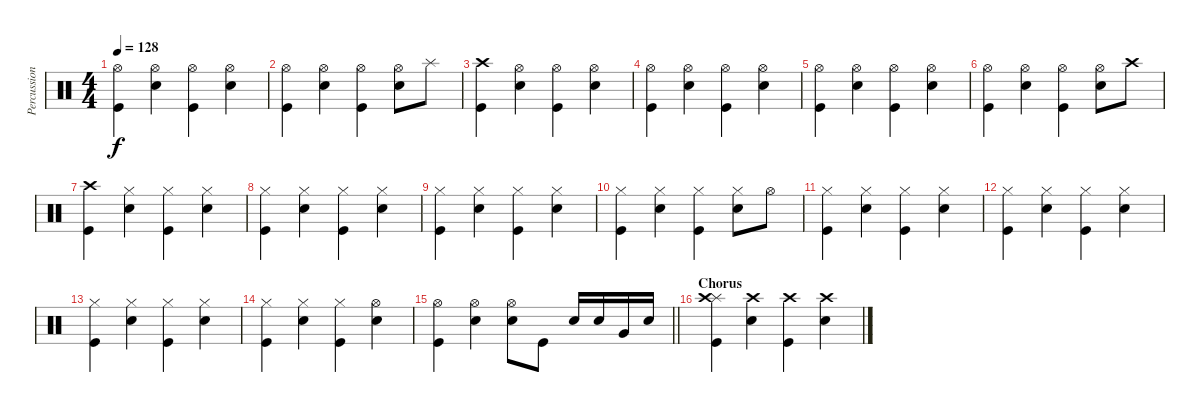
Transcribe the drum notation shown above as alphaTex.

\track ("Percussion" "Percussion") {instrument percussion}
\staff {score}
\articulation defaults
\ts (4 4)
\tempo 128
\clef neutral
\ks c
("Hi-Hat (open)" "Kick (hit)").4{dy f} ("Hi-Hat (open)" "Electric Snare (hit)").4 ("Hi-Hat (open)" "Kick (hit)").4 ("Hi-Hat (open)" "Electric Snare (hit)").4 |
("Hi-Hat (open)" "Kick (hit)").4 ("Hi-Hat (open)" "Electric Snare (hit)").4 ("Hi-Hat (open)" "Kick (hit)").4 ("Hi-Hat (open)" "Electric Snare (hit)").8 "Splash (hit)".8 |
("Crash high (hit)" "Kick (hit)").4 ("Hi-Hat (open)" "Electric Snare (hit)").4 ("Hi-Hat (open)" "Kick (hit)").4 ("Hi-Hat (open)" "Electric Snare (hit)").4 |
("Hi-Hat (open)" "Kick (hit)").4 ("Hi-Hat (open)" "Electric Snare (hit)").4 ("Hi-Hat (open)" "Kick (hit)").4 ("Hi-Hat (open)" "Electric Snare (hit)").4 |
("Hi-Hat (open)" "Kick (hit)").4 ("Hi-Hat (open)" "Electric Snare (hit)").4 ("Hi-Hat (open)" "Kick (hit)").4 ("Hi-Hat (open)" "Electric Snare (hit)").4 |
("Hi-Hat (open)" "Kick (hit)").4 ("Hi-Hat (open)" "Electric Snare (hit)").4 ("Hi-Hat (open)" "Kick (hit)").4 ("Hi-Hat (open)" "Electric Snare (hit)").8 "Crash high (hit)".8 |
("Crash high (hit)" "Kick (hit)").4 ("Hi-Hat (closed)" "Electric Snare (hit)").4 ("Hi-Hat (closed)" "Kick (hit)").4 ("Hi-Hat (closed)" "Electric Snare (hit)").4 |
("Hi-Hat (closed)" "Kick (hit)").4 ("Hi-Hat (closed)" "Electric Snare (hit)").4 ("Hi-Hat (closed)" "Kick (hit)").4 ("Hi-Hat (closed)" "Electric Snare (hit)").4 |
("Hi-Hat (closed)" "Kick (hit)").4 ("Hi-Hat (closed)" "Electric Snare (hit)").4 ("Hi-Hat (closed)" "Kick (hit)").4 ("Hi-Hat (closed)" "Electric Snare (hit)").4 |
("Hi-Hat (closed)" "Kick (hit)").4 ("Hi-Hat (closed)" "Electric Snare (hit)").4 ("Hi-Hat (closed)" "Kick (hit)").4 ("Hi-Hat (closed)" "Electric Snare (hit)").8 "Hi-Hat (open)".8 |
("Hi-Hat (closed)" "Kick (hit)").4 ("Hi-Hat (closed)" "Electric Snare (hit)").4 ("Hi-Hat (closed)" "Kick (hit)").4 ("Hi-Hat (closed)" "Electric Snare (hit)").4 |
("Hi-Hat (closed)" "Kick (hit)").4 ("Hi-Hat (closed)" "Electric Snare (hit)").4 ("Hi-Hat (closed)" "Kick (hit)").4 ("Hi-Hat (closed)" "Electric Snare (hit)").4 |
("Hi-Hat (closed)" "Kick (hit)").4 ("Hi-Hat (closed)" "Electric Snare (hit)").4 ("Hi-Hat (closed)" "Kick (hit)").4 ("Hi-Hat (closed)" "Electric Snare (hit)").4 |
("Hi-Hat (closed)" "Kick (hit)").4 ("Hi-Hat (closed)" "Electric Snare (hit)").4 ("Hi-Hat (closed)" "Kick (hit)").4 ("Hi-Hat (open)" "Electric Snare (hit)").4 |
\barLineRight lightlight
("Hi-Hat (open)" "Kick (hit)").4 ("Hi-Hat (open)" "Electric Snare (hit)").4 ("Hi-Hat (open)" "Electric Snare (hit)").8 "Kick (hit)".8 "Electric Snare (hit)".16 "Electric Snare (hit)".16 "Very Low Tom (hit)".16 "Electric Snare (hit)".16 |
\section ("" "Chorus")
("Splash (hit)" "Crash high (hit)" "Kick (hit)").4 ("Crash high (hit)" "Electric Snare (hit)").4 ("Crash high (hit)" "Kick (hit)").4 ("Crash high (hit)" "Electric Snare (hit)").4
